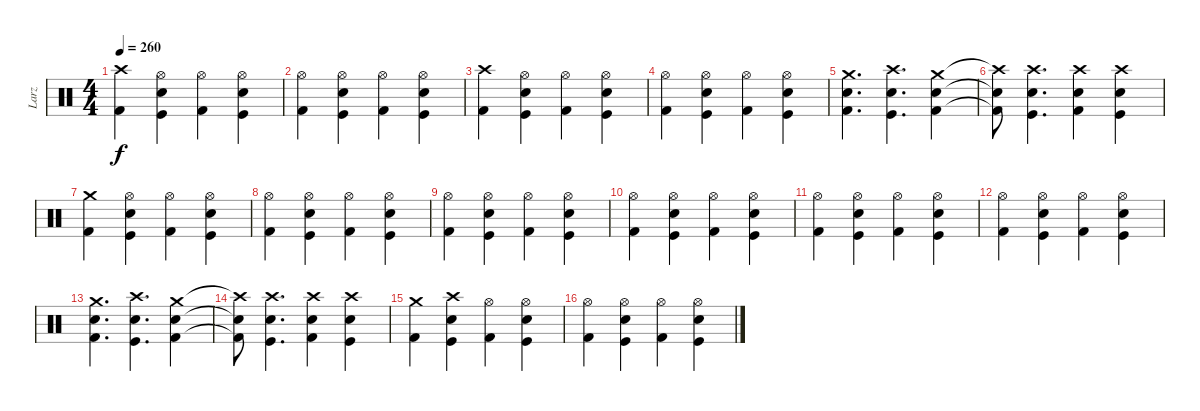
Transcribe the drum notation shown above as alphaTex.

\track ("Larz" "Larz") {instrument percussion}
\staff {score}
\articulation defaults
\ts (4 4)
\tempo 260
\clef neutral
\ks c
("Crash high (hit)" "Kick (hit) 2").4{dy f} ("Hi-Hat (open)" "Kick (hit)" "Electric Snare (hit)").4 ("Hi-Hat (open)" "Kick (hit) 2").4 ("Hi-Hat (open)" "Kick (hit)" "Electric Snare (hit)").4 |
("Hi-Hat (open)" "Kick (hit) 2").4 ("Hi-Hat (open)" "Kick (hit)" "Electric Snare (hit)").4 ("Hi-Hat (open)" "Kick (hit) 2").4 ("Hi-Hat (open)" "Kick (hit)" "Electric Snare (hit)").4 |
("Crash high (hit)" "Kick (hit) 2").4 ("Hi-Hat (open)" "Kick (hit)" "Electric Snare (hit)").4 ("Hi-Hat (open)" "Kick (hit) 2").4 ("Hi-Hat (open)" "Kick (hit)" "Electric Snare (hit)").4 |
("Hi-Hat (open)" "Kick (hit) 2").4 ("Hi-Hat (open)" "Kick (hit)" "Electric Snare (hit)").4 ("Hi-Hat (open)" "Kick (hit) 2").4 ("Hi-Hat (open)" "Kick (hit)" "Electric Snare (hit)").4 |
("Crash medium (hit)" "Kick (hit) 2" "Electric Snare (hit)").4{d} ("Crash high (hit)" "Kick (hit)" "Electric Snare (hit)").4{d} ("Crash medium (hit)" "Kick (hit) 2" "Electric Snare (hit)").4 |
("Crash high (hit)"{t} "Kick (hit) 2"{t} "Electric Snare (hit)"{t}).8 ("Crash high (hit)" "Kick (hit)" "Electric Snare (hit)").4{d} ("Crash high (hit)" "Kick (hit) 2" "Electric Snare (hit)").4 ("Crash high (hit)" "Kick (hit)" "Electric Snare (hit)").4 |
("Crash medium (hit)" "Kick (hit) 2").4 ("Hi-Hat (open)" "Kick (hit)" "Electric Snare (hit)").4 ("Hi-Hat (open)" "Kick (hit) 2").4 ("Hi-Hat (open)" "Kick (hit)" "Electric Snare (hit)").4 |
("Hi-Hat (open)" "Kick (hit) 2").4 ("Hi-Hat (open)" "Kick (hit)" "Electric Snare (hit)").4 ("Hi-Hat (open)" "Kick (hit) 2").4 ("Hi-Hat (open)" "Kick (hit)" "Electric Snare (hit)").4 |
("Hi-Hat (open)" "Kick (hit) 2").4 ("Hi-Hat (open)" "Kick (hit)" "Electric Snare (hit)").4 ("Hi-Hat (open)" "Kick (hit) 2").4 ("Hi-Hat (open)" "Kick (hit)" "Electric Snare (hit)").4 |
("Hi-Hat (open)" "Kick (hit) 2").4 ("Hi-Hat (open)" "Kick (hit)" "Electric Snare (hit)").4 ("Hi-Hat (open)" "Kick (hit) 2").4 ("Hi-Hat (open)" "Kick (hit)" "Electric Snare (hit)").4 |
("Hi-Hat (open)" "Kick (hit) 2").4 ("Hi-Hat (open)" "Kick (hit)" "Electric Snare (hit)").4 ("Hi-Hat (open)" "Kick (hit) 2").4 ("Hi-Hat (open)" "Kick (hit)" "Electric Snare (hit)").4 |
("Hi-Hat (open)" "Kick (hit) 2").4 ("Hi-Hat (open)" "Kick (hit)" "Electric Snare (hit)").4 ("Hi-Hat (open)" "Kick (hit) 2").4 ("Hi-Hat (open)" "Kick (hit)" "Electric Snare (hit)").4 |
("Crash medium (hit)" "Kick (hit) 2" "Electric Snare (hit)").4{d} ("Crash high (hit)" "Kick (hit)" "Electric Snare (hit)").4{d} ("Crash medium (hit)" "Kick (hit) 2" "Electric Snare (hit)").4 |
("Crash high (hit)"{t} "Kick (hit) 2"{t} "Electric Snare (hit)"{t}).8 ("Crash high (hit)" "Kick (hit)" "Electric Snare (hit)").4{d} ("Crash high (hit)" "Kick (hit) 2" "Electric Snare (hit)").4 ("Crash high (hit)" "Kick (hit)" "Electric Snare (hit)").4 |
("Crash medium (hit)" "Kick (hit) 2").4 ("Crash high (hit)" "Kick (hit)" "Electric Snare (hit)").4 ("Hi-Hat (open)" "Kick (hit) 2").4 ("Hi-Hat (open)" "Kick (hit)" "Electric Snare (hit)").4 |
("Hi-Hat (open)" "Kick (hit) 2").4 ("Hi-Hat (open)" "Kick (hit)" "Electric Snare (hit)").4 ("Hi-Hat (open)" "Kick (hit) 2").4 ("Hi-Hat (open)" "Kick (hit)" "Electric Snare (hit)").4
